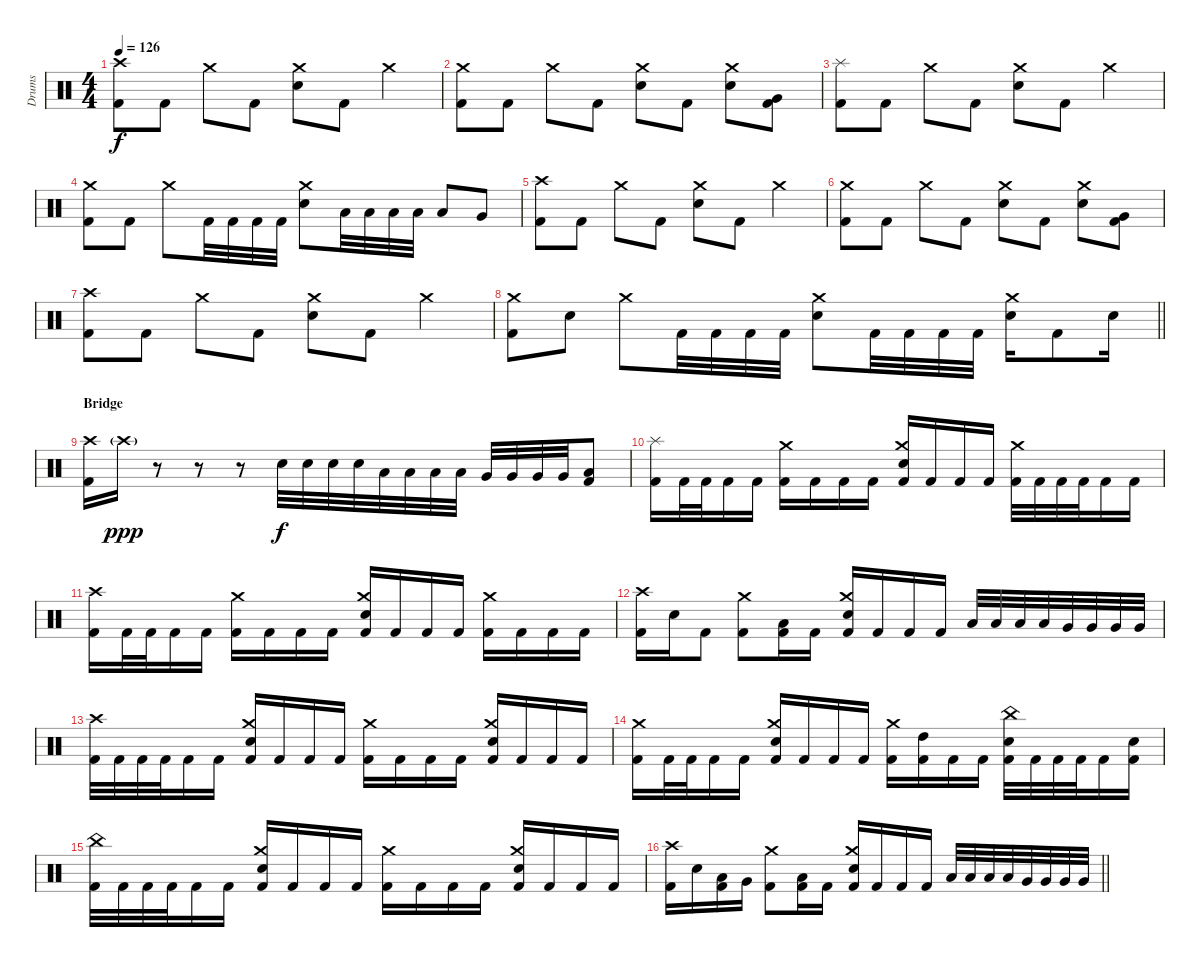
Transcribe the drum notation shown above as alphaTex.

\track ("Drums" "Drums") {instrument percussion}
\staff {score}
\articulation defaults
\ts (4 4)
\tempo 126
\clef neutral
\ks c
("Crash high (hit)" "Kick (hit) 2").8{dy f} "Kick (hit) 2".8 "Crash medium (hit)".8 "Kick (hit) 2".8 ("Crash medium (hit)" "Electric Snare (hit)").8 "Kick (hit) 2".8 "Crash medium (hit)".4 |
("Crash medium (hit)" "Kick (hit) 2").8 "Kick (hit) 2".8 "Crash medium (hit)".8 "Kick (hit) 2".8 ("Crash medium (hit)" "Electric Snare (hit)").8 "Kick (hit) 2".8 ("Crash medium (hit)" "Electric Snare (hit)").8 ("Very Low Tom (hit)" "Kick (hit) 2").8 |
("Splash (hit)" "Kick (hit) 2").8 "Kick (hit) 2".8 "Crash medium (hit)".8 "Kick (hit) 2".8 ("Crash medium (hit)" "Electric Snare (hit)").8 "Kick (hit) 2".8 "Crash medium (hit)".4 |
("Crash medium (hit)" "Kick (hit) 2").8 "Kick (hit) 2".8 "Crash medium (hit)".8 "Kick (hit) 2".32 "Kick (hit) 2".32 "Kick (hit) 2".32 "Kick (hit) 2".32 ("Crash medium (hit)" "Electric Snare (hit)").8 "Low Tom (hit)".32 "Low Tom (hit)".32 "Low Tom (hit)".32 "Low Tom (hit)".32 "Low Tom (hit)".8 "Very Low Tom (hit)".8 |
("Crash high (hit)" "Kick (hit) 2").8 "Kick (hit) 2".8 "Crash medium (hit)".8 "Kick (hit) 2".8 ("Crash medium (hit)" "Electric Snare (hit)").8 "Kick (hit) 2".8 "Crash medium (hit)".4 |
("Crash medium (hit)" "Kick (hit) 2").8 "Kick (hit) 2".8 "Crash medium (hit)".8 "Kick (hit) 2".8 ("Crash medium (hit)" "Electric Snare (hit)").8 "Kick (hit) 2".8 ("Crash medium (hit)" "Electric Snare (hit)").8 ("Very Low Tom (hit)" "Kick (hit) 2").8 |
("Crash high (hit)" "Kick (hit) 2").8 "Kick (hit) 2".8 "Crash medium (hit)".8 "Kick (hit) 2".8 ("Crash medium (hit)" "Electric Snare (hit)").8 "Kick (hit) 2".8 "Crash medium (hit)".4 |
\barLineRight lightlight
("Crash medium (hit)" "Kick (hit) 2").8 "Electric Snare (hit)".8 "Crash medium (hit)".8 "Kick (hit) 2".32 "Kick (hit) 2".32 "Kick (hit) 2".32 "Kick (hit) 2".32 ("Crash medium (hit)" "Electric Snare (hit)").8 "Kick (hit) 2".32 "Kick (hit) 2".32 "Kick (hit) 2".32 "Kick (hit) 2".32 ("Crash medium (hit)" "Electric Snare (hit)").16 "Kick (hit) 2".8 "Electric Snare (hit)".16 |
\section ("" "Bridge")
("Crash high (hit)" "Kick (hit) 2").16 "Crash high (hit)"{g}.16{dy ppp} r.8 r.8 r.8 "Electric Snare (hit)".32{dy f} "Electric Snare (hit)".32 "Electric Snare (hit)".32 "Electric Snare (hit)".32 "Low Tom (hit)".32 "Low Tom (hit)".32 "Low Tom (hit)".32 "Low Tom (hit)".32 "Very Low Tom (hit)".32 "Very Low Tom (hit)".32 "Very Low Tom (hit)".32 "Very Low Tom (hit)".32 ("Low Floor Tom (hit)" "Kick (hit) 2").8 |
("Splash (hit)" "Kick (hit) 2").16 "Kick (hit) 2".32 "Kick (hit) 2".32 "Kick (hit) 2".16 "Kick (hit) 2".16 ("Crash medium (hit)" "Kick (hit) 2").16 "Kick (hit) 2".16 "Kick (hit) 2".16 "Kick (hit) 2".16 ("Crash medium (hit)" "Electric Snare (hit)" "Kick (hit) 2").16 "Kick (hit) 2".16 "Kick (hit) 2".16 "Kick (hit) 2".16 ("Crash medium (hit)" "Kick (hit) 2").32 "Kick (hit) 2".32 "Kick (hit) 2".32 "Kick (hit) 2".32 "Kick (hit) 2".16 "Kick (hit) 2".16 |
("Crash high (hit)" "Kick (hit) 2").16 "Kick (hit) 2".32 "Kick (hit) 2".32 "Kick (hit) 2".16 "Kick (hit) 2".16 ("Crash medium (hit)" "Kick (hit) 2").16 "Kick (hit) 2".16 "Kick (hit) 2".16 "Kick (hit) 2".16 ("Crash medium (hit)" "Electric Snare (hit)" "Kick (hit) 2").16 "Kick (hit) 2".16 "Kick (hit) 2".16 "Kick (hit) 2".16 ("Crash medium (hit)" "Kick (hit) 2").16 "Kick (hit) 2".16 "Kick (hit) 2".16 "Kick (hit) 2".16 |
("Crash high (hit)" "Kick (hit) 2").16 "Electric Snare (hit)".16 "Kick (hit) 2".8 ("Crash medium (hit)" "Kick (hit) 2").8 ("Low Tom (hit)" "Kick (hit) 2").16 "Kick (hit) 2".16 ("Crash medium (hit)" "Electric Snare (hit)" "Kick (hit) 2").16 "Kick (hit) 2".16 "Kick (hit) 2".16 "Kick (hit) 2".16 "Low Tom (hit)".32 "Low Tom (hit)".32 "Low Tom (hit)".32 "Low Tom (hit)".32 "Very Low Tom (hit)".32 "Very Low Tom (hit)".32 "Very Low Tom (hit)".32 "Very Low Tom (hit)".32 |
("Crash high (hit)" "Kick (hit) 2").32 "Kick (hit) 2".32 "Kick (hit) 2".32 "Kick (hit) 2".32 "Kick (hit) 2".16 "Kick (hit) 2".16 ("Crash medium (hit)" "Electric Snare (hit)" "Kick (hit) 2").16 "Kick (hit) 2".16 "Kick (hit) 2".16 "Kick (hit) 2".16 ("Crash medium (hit)" "Kick (hit) 2").16 "Kick (hit) 2".16 "Kick (hit) 2".16 "Kick (hit) 2".16 ("Crash medium (hit)" "Electric Snare (hit)" "Kick (hit) 2").16 "Kick (hit) 2".16 "Kick (hit) 2".16 "Kick (hit) 2".16 |
("Crash medium (hit)" "Kick (hit) 2").16 "Kick (hit) 2".32 "Kick (hit) 2".32 "Kick (hit) 2".16 "Kick (hit) 2".16 ("Crash medium (hit)" "Electric Snare (hit)" "Kick (hit) 2").16 "Kick (hit) 2".16 "Kick (hit) 2".16 "Kick (hit) 2".16 ("Crash medium (hit)" "Kick (hit) 2").16 ("High Tom (hit)" "Kick (hit) 2").16 "Kick (hit) 2".16 "Kick (hit) 2".16 ("China (hit)" "Electric Snare (hit)" "Kick (hit) 2").32 "Kick (hit) 2".32 "Kick (hit) 2".32 "Kick (hit) 2".32 "Kick (hit) 2".16 ("Electric Snare (hit)" "Kick (hit) 2").16 |
("China (hit)" "Kick (hit) 2").32 "Kick (hit) 2".32 "Kick (hit) 2".32 "Kick (hit) 2".32 "Kick (hit) 2".16 "Kick (hit) 2".16 ("Crash medium (hit)" "Electric Snare (hit)" "Kick (hit) 2").16 "Kick (hit) 2".16 "Kick (hit) 2".16 "Kick (hit) 2".16 ("Crash medium (hit)" "Kick (hit) 2").16 "Kick (hit) 2".16 "Kick (hit) 2".16 "Kick (hit) 2".16 ("Crash medium (hit)" "Electric Snare (hit)" "Kick (hit) 2").16 "Kick (hit) 2".16 "Kick (hit) 2".16 "Kick (hit) 2".16 |
\barLineRight lightlight
("Crash high (hit)" "Kick (hit) 2").16 "Electric Snare (hit)".16 ("Low Tom (hit)" "Kick (hit) 2").16 "Very Low Tom (hit)".16 ("Crash medium (hit)" "Kick (hit) 2").8 ("Low Tom (hit)" "Kick (hit) 2").16 "Kick (hit) 2".16 ("Crash medium (hit)" "Electric Snare (hit)" "Kick (hit) 2").16 "Kick (hit) 2".16 "Kick (hit) 2".16 "Kick (hit) 2".16 "Low Tom (hit)".32 "Low Tom (hit)".32 "Low Tom (hit)".32 "Low Tom (hit)".32 "Very Low Tom (hit)".32 "Very Low Tom (hit)".32 "Very Low Tom (hit)".32 "Very Low Tom (hit)".32
